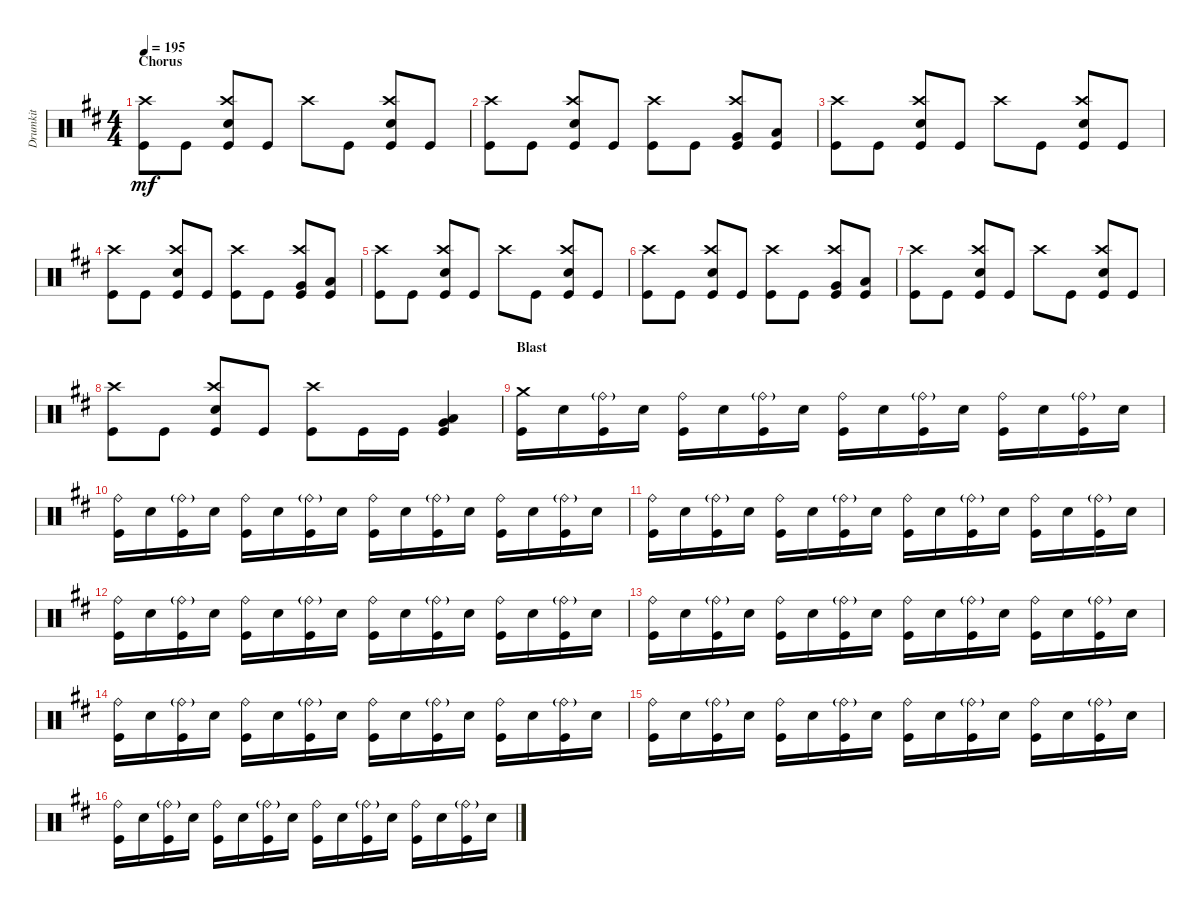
\track ("Drumkit" "Drumkit") {instrument percussion}
\staff {score}
\articulation defaults
\ts (4 4)
\section ("" "Chorus")
\tempo 195
\clef neutral
\ks bminor
("Kick (hit)" "Crash high (hit)").8{dy mf} "Kick (hit)".8 ("Kick (hit)" "Snare (hit) 2" "Crash high (hit)").8 "Kick (hit)".8 "Crash high (hit)".8 "Kick (hit)".8 ("Kick (hit)" "Snare (hit) 2" "Crash high (hit)").8 "Kick (hit)".8 |
("Kick (hit)" "Crash high (hit)").8 "Kick (hit)".8 ("Kick (hit)" "Snare (hit) 2" "Crash high (hit)").8 "Kick (hit)".8 ("Kick (hit)" "Crash high (hit)").8 "Kick (hit)".8 ("Kick (hit)" "Very Low Tom (hit)" "Crash high (hit)").8 ("Kick (hit)" "Low Floor Tom (hit)").8 |
("Kick (hit)" "Crash high (hit)").8 "Kick (hit)".8 ("Kick (hit)" "Snare (hit) 2" "Crash high (hit)").8 "Kick (hit)".8 "Crash high (hit)".8 "Kick (hit)".8 ("Kick (hit)" "Snare (hit) 2" "Crash high (hit)").8 "Kick (hit)".8 |
("Kick (hit)" "Crash high (hit)").8 "Kick (hit)".8 ("Kick (hit)" "Snare (hit) 2" "Crash high (hit)").8 "Kick (hit)".8 ("Kick (hit)" "Crash high (hit)").8 "Kick (hit)".8 ("Kick (hit)" "Very Low Tom (hit)" "Crash high (hit)").8 ("Kick (hit)" "Low Floor Tom (hit)").8 |
("Kick (hit)" "Crash high (hit)").8 "Kick (hit)".8 ("Kick (hit)" "Snare (hit) 2" "Crash high (hit)").8 "Kick (hit)".8 "Crash high (hit)".8 "Kick (hit)".8 ("Kick (hit)" "Snare (hit) 2" "Crash high (hit)").8 "Kick (hit)".8 |
("Kick (hit)" "Crash high (hit)").8 "Kick (hit)".8 ("Kick (hit)" "Snare (hit) 2" "Crash high (hit)").8 "Kick (hit)".8 ("Kick (hit)" "Crash high (hit)").8 "Kick (hit)".8 ("Kick (hit)" "Very Low Tom (hit)" "Crash high (hit)").8 ("Kick (hit)" "Low Floor Tom (hit)").8 |
("Kick (hit)" "Crash high (hit)").8 "Kick (hit)".8 ("Kick (hit)" "Snare (hit) 2" "Crash high (hit)").8 "Kick (hit)".8 "Crash high (hit)".8 "Kick (hit)".8 ("Kick (hit)" "Snare (hit) 2" "Crash high (hit)").8 "Kick (hit)".8 |
("Kick (hit)" "Crash high (hit)").8 "Kick (hit)".8 ("Kick (hit)" "Snare (hit) 2" "Crash high (hit)").8 "Kick (hit)".8 ("Kick (hit)" "Crash high (hit)").8 "Kick (hit)".16 "Kick (hit)".16 ("Kick (hit)" "Very Low Tom (hit)" "Low Floor Tom (hit)").4 |
\section ("" "Blast")
("Kick (hit)" "Crash medium (hit)").16 "Snare (hit) 2".16 ("Kick (hit)" "Ride (bell)"{g}).16 "Snare (hit) 2".16 ("Kick (hit)" "Ride (bell)").16 "Snare (hit) 2".16 ("Kick (hit)" "Ride (bell)"{g}).16 "Snare (hit) 2".16 ("Kick (hit)" "Ride (bell)").16 "Snare (hit) 2".16 ("Kick (hit)" "Ride (bell)"{g}).16 "Snare (hit) 2".16 ("Kick (hit)" "Ride (bell)").16 "Snare (hit) 2".16 ("Kick (hit)" "Ride (bell)"{g}).16 "Snare (hit) 2".16 |
("Kick (hit)" "Ride (bell)").16 "Snare (hit) 2".16 ("Kick (hit)" "Ride (bell)"{g}).16 "Snare (hit) 2".16 ("Kick (hit)" "Ride (bell)").16 "Snare (hit) 2".16 ("Kick (hit)" "Ride (bell)"{g}).16 "Snare (hit) 2".16 ("Kick (hit)" "Ride (bell)").16 "Snare (hit) 2".16 ("Kick (hit)" "Ride (bell)"{g}).16 "Snare (hit) 2".16 ("Kick (hit)" "Ride (bell)").16 "Snare (hit) 2".16 ("Kick (hit)" "Ride (bell)"{g}).16 "Snare (hit) 2".16 |
("Kick (hit)" "Ride (bell)").16 "Snare (hit) 2".16 ("Kick (hit)" "Ride (bell)"{g}).16 "Snare (hit) 2".16 ("Kick (hit)" "Ride (bell)").16 "Snare (hit) 2".16 ("Kick (hit)" "Ride (bell)"{g}).16 "Snare (hit) 2".16 ("Kick (hit)" "Ride (bell)").16 "Snare (hit) 2".16 ("Kick (hit)" "Ride (bell)"{g}).16 "Snare (hit) 2".16 ("Kick (hit)" "Ride (bell)").16 "Snare (hit) 2".16 ("Kick (hit)" "Ride (bell)"{g}).16 "Snare (hit) 2".16 |
("Kick (hit)" "Ride (bell)").16 "Snare (hit) 2".16 ("Kick (hit)" "Ride (bell)"{g}).16 "Snare (hit) 2".16 ("Kick (hit)" "Ride (bell)").16 "Snare (hit) 2".16 ("Kick (hit)" "Ride (bell)"{g}).16 "Snare (hit) 2".16 ("Kick (hit)" "Ride (bell)").16 "Snare (hit) 2".16 ("Kick (hit)" "Ride (bell)"{g}).16 "Snare (hit) 2".16 ("Kick (hit)" "Ride (bell)").16 "Snare (hit) 2".16 ("Kick (hit)" "Ride (bell)"{g}).16 "Snare (hit) 2".16 |
("Kick (hit)" "Ride (bell)").16 "Snare (hit) 2".16 ("Kick (hit)" "Ride (bell)"{g}).16 "Snare (hit) 2".16 ("Kick (hit)" "Ride (bell)").16 "Snare (hit) 2".16 ("Kick (hit)" "Ride (bell)"{g}).16 "Snare (hit) 2".16 ("Kick (hit)" "Ride (bell)").16 "Snare (hit) 2".16 ("Kick (hit)" "Ride (bell)"{g}).16 "Snare (hit) 2".16 ("Kick (hit)" "Ride (bell)").16 "Snare (hit) 2".16 ("Kick (hit)" "Ride (bell)"{g}).16 "Snare (hit) 2".16 |
("Kick (hit)" "Ride (bell)").16 "Snare (hit) 2".16 ("Kick (hit)" "Ride (bell)"{g}).16 "Snare (hit) 2".16 ("Kick (hit)" "Ride (bell)").16 "Snare (hit) 2".16 ("Kick (hit)" "Ride (bell)"{g}).16 "Snare (hit) 2".16 ("Kick (hit)" "Ride (bell)").16 "Snare (hit) 2".16 ("Kick (hit)" "Ride (bell)"{g}).16 "Snare (hit) 2".16 ("Kick (hit)" "Ride (bell)").16 "Snare (hit) 2".16 ("Kick (hit)" "Ride (bell)"{g}).16 "Snare (hit) 2".16 |
("Kick (hit)" "Ride (bell)").16 "Snare (hit) 2".16 ("Kick (hit)" "Ride (bell)"{g}).16 "Snare (hit) 2".16 ("Kick (hit)" "Ride (bell)").16 "Snare (hit) 2".16 ("Kick (hit)" "Ride (bell)"{g}).16 "Snare (hit) 2".16 ("Kick (hit)" "Ride (bell)").16 "Snare (hit) 2".16 ("Kick (hit)" "Ride (bell)"{g}).16 "Snare (hit) 2".16 ("Kick (hit)" "Ride (bell)").16 "Snare (hit) 2".16 ("Kick (hit)" "Ride (bell)"{g}).16 "Snare (hit) 2".16 |
("Kick (hit)" "Ride (bell)").16 "Snare (hit) 2".16 ("Kick (hit)" "Ride (bell)"{g}).16 "Snare (hit) 2".16 ("Kick (hit)" "Ride (bell)").16 "Snare (hit) 2".16 ("Kick (hit)" "Ride (bell)"{g}).16 "Snare (hit) 2".16 ("Kick (hit)" "Ride (bell)").16 "Snare (hit) 2".16 ("Kick (hit)" "Ride (bell)"{g}).16 "Snare (hit) 2".16 ("Kick (hit)" "Ride (bell)").16 "Snare (hit) 2".16 ("Kick (hit)" "Ride (bell)"{g}).16 "Snare (hit) 2".16
